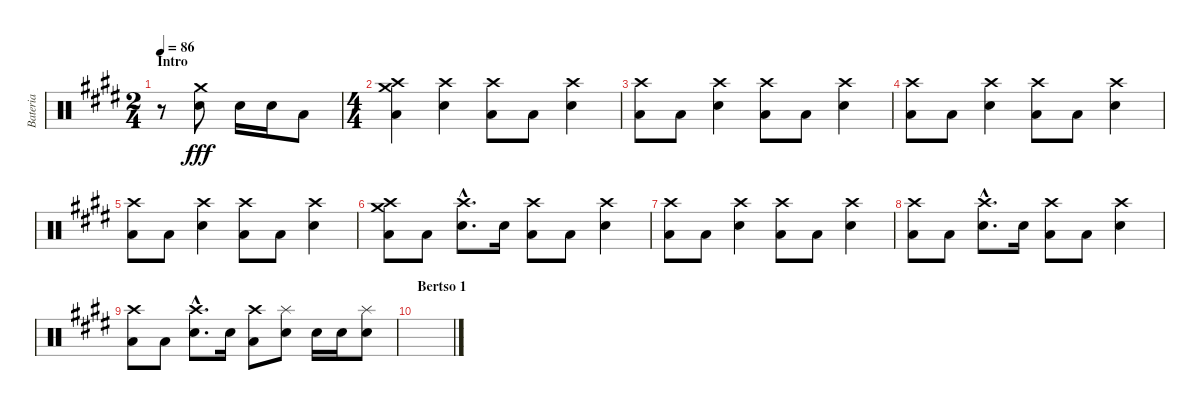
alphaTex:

\track ("Bateria" "Bateria") {instrument percussion}
\staff {score}
\articulation defaults
\ts (2 4)
\section ("" "Intro")
\tempo 86
\clef neutral
\ks e
r.8{dy fff} ("Electric Snare (hit)" "Crash medium (hit)").8 "Electric Snare (hit)".16 "Electric Snare (hit)".16 "Low Floor Tom (hit)".8 |
\ts (4 4)
("Crash high (hit)" "Low Floor Tom (hit)" "Crash medium (hit)").4 ("Crash high (hit)" "Electric Snare (hit)").4 ("Crash high (hit)" "Low Floor Tom (hit)").8 "Low Floor Tom (hit)".8 ("Crash high (hit)" "Electric Snare (hit)").4 |
("Crash high (hit)" "Low Floor Tom (hit)").8 "Low Floor Tom (hit)".8 ("Crash high (hit)" "Electric Snare (hit)").4 ("Crash high (hit)" "Low Floor Tom (hit)").8 "Low Floor Tom (hit)".8 ("Crash high (hit)" "Electric Snare (hit)").4 |
("Crash high (hit)" "Low Floor Tom (hit)").8 "Low Floor Tom (hit)".8 ("Crash high (hit)" "Electric Snare (hit)").4 ("Crash high (hit)" "Low Floor Tom (hit)").8 "Low Floor Tom (hit)".8 ("Crash high (hit)" "Electric Snare (hit)").4 |
("Crash high (hit)" "Low Floor Tom (hit)").8 "Low Floor Tom (hit)".8 ("Crash high (hit)" "Electric Snare (hit)").4 ("Crash high (hit)" "Low Floor Tom (hit)").8 "Low Floor Tom (hit)".8 ("Crash high (hit)" "Electric Snare (hit)").4 |
("Crash high (hit)" "Low Floor Tom (hit)" "Crash medium (hit)").8 "Low Floor Tom (hit)".8 ("Crash high (hit)"{hac} "Electric Snare (hit)"{hac}).8{d} "Electric Snare (hit)".16 ("Crash high (hit)" "Low Floor Tom (hit)").8 "Low Floor Tom (hit)".8 ("Crash high (hit)" "Electric Snare (hit)").4 |
("Crash high (hit)" "Low Floor Tom (hit)").8 "Low Floor Tom (hit)".8 ("Crash high (hit)" "Electric Snare (hit)").4 ("Crash high (hit)" "Low Floor Tom (hit)").8 "Low Floor Tom (hit)".8 ("Crash high (hit)" "Electric Snare (hit)").4 |
("Crash high (hit)" "Low Floor Tom (hit)").8 "Low Floor Tom (hit)".8 ("Crash high (hit)"{hac} "Electric Snare (hit)"{hac}).8{d} "Electric Snare (hit)".16 ("Crash high (hit)" "Low Floor Tom (hit)").8 "Low Floor Tom (hit)".8 ("Crash high (hit)" "Electric Snare (hit)").4 |
("Crash high (hit)" "Low Floor Tom (hit)").8 "Low Floor Tom (hit)".8 ("Crash high (hit)"{hac} "Electric Snare (hit)"{hac}).8{d} "Electric Snare (hit)".16 ("Crash high (hit)" "Low Floor Tom (hit)").8 ("Electric Snare (hit)" "Splash (hit)").8 "Electric Snare (hit)".16 "Electric Snare (hit)".16 ("Electric Snare (hit)" "Splash (hit)").8 |
\section ("" "Bertso 1")
